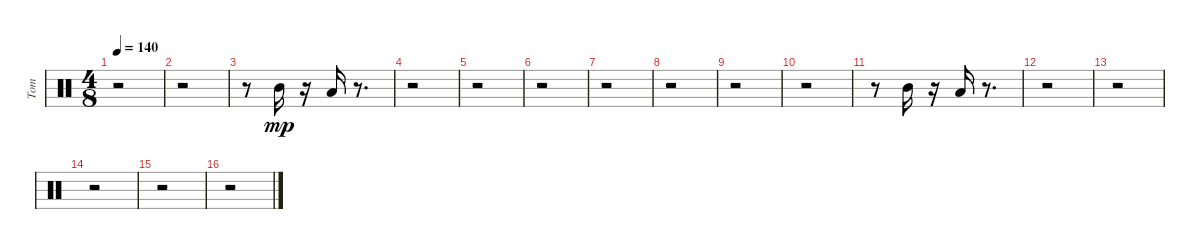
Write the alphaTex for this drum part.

\track ("Tom" "Tom") {instrument percussion}
\staff {score}
\articulation defaults
\ts (4 8)
\tempo 140
\clef neutral
\ks c
r.2{dy f} |
r.2 |
r.8 "Mid Tom (hit)".16{dy mp} r.16 "Low Tom (hit)".16 r.8{d} |
r.2 |
r.2 |
r.2 |
r.2 |
r.2 |
r.2 |
r.2 |
r.8 "Mid Tom (hit)".16 r.16 "Low Tom (hit)".16 r.8{d} |
r.2 |
r.2 |
r.2 |
r.2 |
r.2
